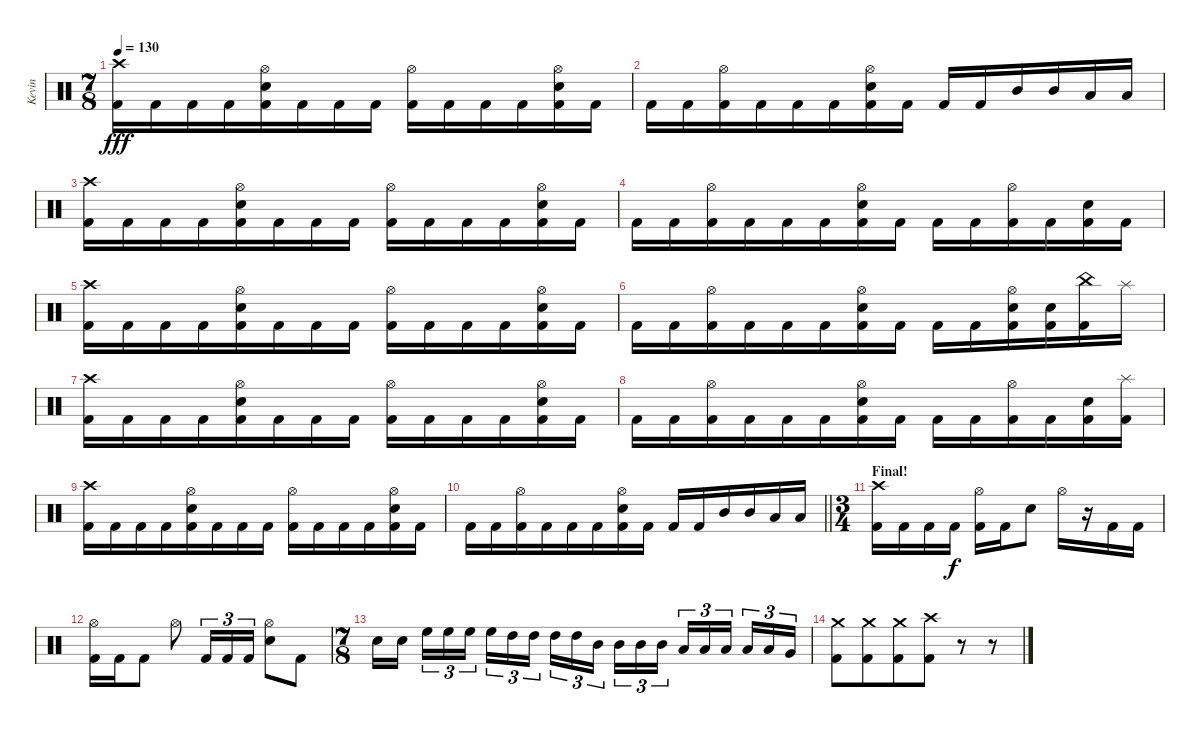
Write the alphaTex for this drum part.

\track ("Kevin" "Kevin") {instrument percussion}
\staff {score}
\articulation defaults
\ts (7 8)
\tempo 130
\clef neutral
\ks c
("Crash high (hit)" "Kick (hit) 2").16{dy fff} "Kick (hit) 2".16 "Kick (hit) 2".16 "Kick (hit) 2".16 ("Hi-Hat (open)" "Electric Snare (hit)" "Kick (hit) 2").16 "Kick (hit) 2".16 "Kick (hit) 2".16 "Kick (hit) 2".16 ("Hi-Hat (open)" "Kick (hit) 2").16 "Kick (hit) 2".16 "Kick (hit) 2".16 "Kick (hit) 2".16 ("Hi-Hat (open)" "Electric Snare (hit)" "Kick (hit) 2").16 "Kick (hit) 2".16 |
"Kick (hit) 2".16 "Kick (hit) 2".16 ("Hi-Hat (open)" "Kick (hit) 2").16 "Kick (hit) 2".16 "Kick (hit) 2".16 "Kick (hit) 2".16 ("Hi-Hat (open)" "Electric Snare (hit)" "Kick (hit) 2").16 "Kick (hit) 2".16 "Kick (hit) 2".16 "Kick (hit) 2".16 "Mid Tom (hit)".16 "Mid Tom (hit)".16 "Low Tom (hit)".16 "Low Tom (hit)".16 |
("Crash high (hit)" "Kick (hit) 2").16 "Kick (hit) 2".16 "Kick (hit) 2".16 "Kick (hit) 2".16 ("Hi-Hat (open)" "Electric Snare (hit)" "Kick (hit) 2").16 "Kick (hit) 2".16 "Kick (hit) 2".16 "Kick (hit) 2".16 ("Hi-Hat (open)" "Kick (hit) 2").16 "Kick (hit) 2".16 "Kick (hit) 2".16 "Kick (hit) 2".16 ("Hi-Hat (open)" "Electric Snare (hit)" "Kick (hit) 2").16 "Kick (hit) 2".16 |
"Kick (hit) 2".16 "Kick (hit) 2".16 ("Hi-Hat (open)" "Kick (hit) 2").16 "Kick (hit) 2".16 "Kick (hit) 2".16 "Kick (hit) 2".16 ("Hi-Hat (open)" "Electric Snare (hit)" "Kick (hit) 2").16 "Kick (hit) 2".16 "Kick (hit) 2".16 "Kick (hit) 2".16 ("Hi-Hat (open)" "Kick (hit) 2").16 "Kick (hit) 2".16 ("Electric Snare (hit)" "Kick (hit) 2").16 "Kick (hit) 2".16 |
("Crash high (hit)" "Kick (hit) 2").16 "Kick (hit) 2".16 "Kick (hit) 2".16 "Kick (hit) 2".16 ("Hi-Hat (open)" "Electric Snare (hit)" "Kick (hit) 2").16 "Kick (hit) 2".16 "Kick (hit) 2".16 "Kick (hit) 2".16 ("Hi-Hat (open)" "Kick (hit) 2").16 "Kick (hit) 2".16 "Kick (hit) 2".16 "Kick (hit) 2".16 ("Hi-Hat (open)" "Electric Snare (hit)" "Kick (hit) 2").16 "Kick (hit) 2".16 |
"Kick (hit) 2".16 "Kick (hit) 2".16 ("Hi-Hat (open)" "Kick (hit) 2").16 "Kick (hit) 2".16 "Kick (hit) 2".16 "Kick (hit) 2".16 ("Hi-Hat (open)" "Electric Snare (hit)" "Kick (hit) 2").16 "Kick (hit) 2".16 "Kick (hit) 2".16 "Kick (hit) 2".16 ("Hi-Hat (open)" "Electric Snare (hit)" "Kick (hit) 2").16 ("Electric Snare (hit)" "Kick (hit) 2").16 ("China (hit)" "Kick (hit) 2").16 "Splash (hit)".16 |
("Crash high (hit)" "Kick (hit) 2").16 "Kick (hit) 2".16 "Kick (hit) 2".16 "Kick (hit) 2".16 ("Hi-Hat (open)" "Electric Snare (hit)" "Kick (hit) 2").16 "Kick (hit) 2".16 "Kick (hit) 2".16 "Kick (hit) 2".16 ("Hi-Hat (open)" "Kick (hit) 2").16 "Kick (hit) 2".16 "Kick (hit) 2".16 "Kick (hit) 2".16 ("Hi-Hat (open)" "Electric Snare (hit)" "Kick (hit) 2").16 "Kick (hit) 2".16 |
"Kick (hit) 2".16 "Kick (hit) 2".16 ("Hi-Hat (open)" "Kick (hit) 2").16 "Kick (hit) 2".16 "Kick (hit) 2".16 "Kick (hit) 2".16 ("Hi-Hat (open)" "Electric Snare (hit)" "Kick (hit) 2").16 "Kick (hit) 2".16 "Kick (hit) 2".16 "Kick (hit) 2".16 ("Hi-Hat (open)" "Kick (hit) 2").16 "Kick (hit) 2".16 ("Electric Snare (hit)" "Kick (hit) 2").16 ("Splash (hit)" "Kick (hit) 2").16 |
("Crash high (hit)" "Kick (hit) 2").16 "Kick (hit) 2".16 "Kick (hit) 2".16 "Kick (hit) 2".16 ("Hi-Hat (open)" "Electric Snare (hit)" "Kick (hit) 2").16 "Kick (hit) 2".16 "Kick (hit) 2".16 "Kick (hit) 2".16 ("Hi-Hat (open)" "Kick (hit) 2").16 "Kick (hit) 2".16 "Kick (hit) 2".16 "Kick (hit) 2".16 ("Hi-Hat (open)" "Electric Snare (hit)" "Kick (hit) 2").16 "Kick (hit) 2".16 |
\barLineRight lightlight "Kick (hit) 2".16 "Kick (hit) 2".16
("Hi-Hat (open)" "Kick (hit) 2").16 "Kick (hit) 2".16 "Kick (hit) 2".16 "Kick (hit) 2".16 ("Hi-Hat (open)" "Electric Snare (hit)" "Kick (hit) 2").16 "Kick (hit) 2".16 "Kick (hit) 2".16 "Kick (hit) 2".16 "Mid Tom (hit)".16 "Mid Tom (hit)".16 "Low Tom (hit)".16 "Low Tom (hit)".16 |
\ts (3 4)
\section ("" "Final!")
("Crash high (hit)" "Kick (hit) 2").16 "Kick (hit) 2".16 "Kick (hit) 2".16 "Kick (hit) 2".16{dy f} ("Hi-Hat (open)" "Kick (hit) 2").16 "Kick (hit) 2".16 "Electric Snare (hit)".8 "Hi-Hat (open)".16 r.16 "Kick (hit) 2".16 "Kick (hit) 2".16 |
("Hi-Hat (open)" "Kick (hit) 2").16 "Kick (hit) 2".16 "Kick (hit) 2".8 "Hi-Hat (open)".8 "Kick (hit) 2".16{tu (3 2)} "Kick (hit) 2".16{tu (3 2)} "Kick (hit) 2".16{tu (3 2)} ("Hi-Hat (open)" "Electric Snare (hit)").8 "Kick (hit) 2".8 |
\ts (7 8)
"Electric Snare (hit)".16 "Electric Snare (hit)".16 "High Floor Tom (hit)".16{tu (3 2)} "High Floor Tom (hit)".16{tu (3 2)} "High Floor Tom (hit)".16{tu (3 2)} "High Floor Tom (hit)".16{tu (3 2)} "High Tom (hit)".16{tu (3 2)} "High Tom (hit)".16{tu (3 2)} "High Tom (hit)".16{tu (3 2)} "High Tom (hit)".16{tu (3 2)} "Mid Tom (hit)".16{tu (3 2)} "Mid Tom (hit)".16{tu (3 2)} "Mid Tom (hit)".16{tu (3 2)} "Mid Tom (hit)".16{tu (3 2)} "Low Tom (hit)".16{tu (3 2)} "Low Tom (hit)".16{tu (3 2)} "Low Tom (hit)".16{tu (3 2)} "Low Tom (hit)".16{tu (3 2)} "Low Tom (hit)".16{tu (3 2)} "Very Low Tom (hit)".16{tu (3 2)} |
("Crash medium (hit)" "Kick (hit) 2").8 ("Crash medium (hit)" "Kick (hit) 2").8 ("Crash medium (hit)" "Kick (hit) 2").8 ("Crash high (hit)" "Kick (hit) 2").8 r.8 r.8
